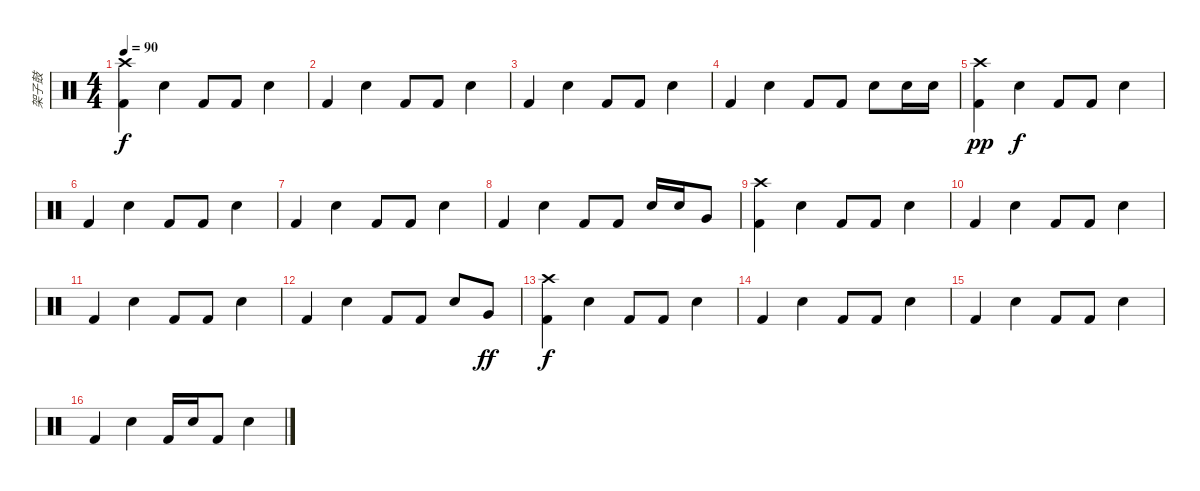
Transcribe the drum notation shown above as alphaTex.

\track ("架子鼓" "架子鼓") {instrument percussion}
\staff {score}
\articulation defaults
\ts (4 4)
\tempo 90
\clef neutral
\ks c
("Kick (hit) 2" "Crash high (hit)").4{dy f} "Electric Snare (hit)".4 "Kick (hit) 2".8 "Kick (hit) 2".8 "Electric Snare (hit)".4 |
"Kick (hit) 2".4 "Electric Snare (hit)".4 "Kick (hit) 2".8 "Kick (hit) 2".8 "Electric Snare (hit)".4 |
"Kick (hit) 2".4 "Electric Snare (hit)".4 "Kick (hit) 2".8 "Kick (hit) 2".8 "Electric Snare (hit)".4 |
"Kick (hit) 2".4 "Electric Snare (hit)".4 "Kick (hit) 2".8 "Kick (hit) 2".8 "Electric Snare (hit)".8 "Electric Snare (hit)".16 "Electric Snare (hit)".16 |
("Kick (hit) 2" "Crash high (hit)").4{dy pp} "Electric Snare (hit)".4{dy f} "Kick (hit) 2".8 "Kick (hit) 2".8 "Electric Snare (hit)".4 |
"Kick (hit) 2".4 "Electric Snare (hit)".4 "Kick (hit) 2".8 "Kick (hit) 2".8 "Electric Snare (hit)".4 |
"Kick (hit) 2".4 "Electric Snare (hit)".4 "Kick (hit) 2".8 "Kick (hit) 2".8 "Electric Snare (hit)".4 |
"Kick (hit) 2".4 "Electric Snare (hit)".4 "Kick (hit) 2".8 "Kick (hit) 2".8 "Electric Snare (hit)".16 "Electric Snare (hit)".16 "Very Low Tom (hit)".8 |
("Kick (hit) 2" "Crash high (hit)").4 "Electric Snare (hit)".4 "Kick (hit) 2".8 "Kick (hit) 2".8 "Electric Snare (hit)".4 |
"Kick (hit) 2".4 "Electric Snare (hit)".4 "Kick (hit) 2".8 "Kick (hit) 2".8 "Electric Snare (hit)".4 |
"Kick (hit) 2".4 "Electric Snare (hit)".4 "Kick (hit) 2".8 "Kick (hit) 2".8 "Electric Snare (hit)".4 |
"Kick (hit) 2".4 "Electric Snare (hit)".4 "Kick (hit) 2".8 "Kick (hit) 2".8 "Electric Snare (hit)".8 "Very Low Tom (hit)".8{dy ff} |
("Kick (hit) 2" "Crash high (hit)").4{dy f} "Electric Snare (hit)".4 "Kick (hit) 2".8 "Kick (hit) 2".8 "Electric Snare (hit)".4 |
"Kick (hit) 2".4 "Electric Snare (hit)".4 "Kick (hit) 2".8 "Kick (hit) 2".8 "Electric Snare (hit)".4 |
"Kick (hit) 2".4 "Electric Snare (hit)".4 "Kick (hit) 2".8 "Kick (hit) 2".8 "Electric Snare (hit)".4 |
"Kick (hit) 2".4 "Electric Snare (hit)".4 "Kick (hit) 2".16 "Electric Snare (hit)".16 "Kick (hit) 2".8 "Electric Snare (hit)".4
